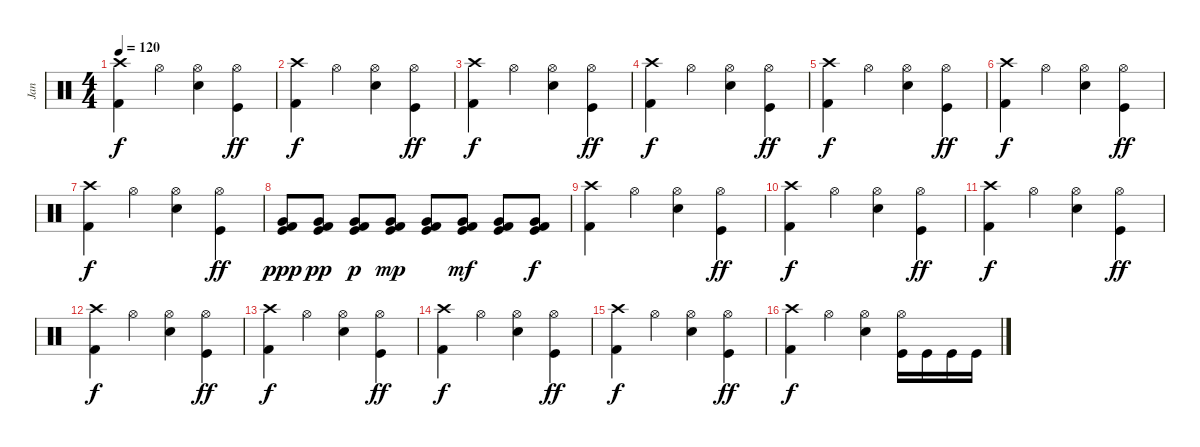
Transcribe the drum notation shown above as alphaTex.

\track ("Jan" "Jan") {instrument percussion}
\staff {score}
\articulation defaults
\ts (4 4)
\tempo 120
\clef neutral
\ks c
("Crash high (hit)" "Kick (hit) 2").4{dy f} "Hi-Hat (open)".4 ("Hi-Hat (open)" "Snare (hit) 2").4 ("Hi-Hat (open)" "Kick (hit)").4{dy ff} |
("Crash high (hit)" "Kick (hit) 2").4{dy f} "Hi-Hat (open)".4 ("Hi-Hat (open)" "Snare (hit) 2").4 ("Hi-Hat (open)" "Kick (hit)").4{dy ff} |
("Crash high (hit)" "Kick (hit) 2").4{dy f} "Hi-Hat (open)".4 ("Hi-Hat (open)" "Snare (hit) 2").4 ("Hi-Hat (open)" "Kick (hit)").4{dy ff} |
("Crash high (hit)" "Kick (hit) 2").4{dy f} "Hi-Hat (open)".4 ("Hi-Hat (open)" "Snare (hit) 2").4 ("Hi-Hat (open)" "Kick (hit)").4{dy ff} |
("Crash high (hit)" "Kick (hit) 2").4{dy f} "Hi-Hat (open)".4 ("Hi-Hat (open)" "Snare (hit) 2").4 ("Hi-Hat (open)" "Kick (hit)").4{dy ff} |
("Crash high (hit)" "Kick (hit) 2").4{dy f} "Hi-Hat (open)".4 ("Hi-Hat (open)" "Snare (hit) 2").4 ("Hi-Hat (open)" "Kick (hit)").4{dy ff} |
("Crash high (hit)" "Kick (hit) 2").4{dy f} "Hi-Hat (open)".4 ("Hi-Hat (open)" "Snare (hit) 2").4 ("Hi-Hat (open)" "Kick (hit)").4{dy ff} |
("Very Low Tom (hit)" "Kick (hit) 2" "Kick (hit)").8{dy ppp} ("Very Low Tom (hit)" "Kick (hit) 2" "Kick (hit)").8{dy pp} ("Very Low Tom (hit)" "Kick (hit) 2" "Kick (hit)").8{dy p} ("Very Low Tom (hit)" "Kick (hit) 2" "Kick (hit)").8{dy mp} ("Very Low Tom (hit)" "Kick (hit) 2" "Kick (hit)").8 ("Very Low Tom (hit)" "Kick (hit) 2" "Kick (hit)").8{dy mf} ("Very Low Tom (hit)" "Kick (hit) 2" "Kick (hit)").8 ("Very Low Tom (hit)" "Kick (hit) 2" "Kick (hit)").8{dy f} |
("Crash high (hit)" "Kick (hit) 2").4 "Hi-Hat (open)".4 ("Hi-Hat (open)" "Snare (hit) 2").4 ("Hi-Hat (open)" "Kick (hit)").4{dy ff} |
("Crash high (hit)" "Kick (hit) 2").4{dy f} "Hi-Hat (open)".4 ("Hi-Hat (open)" "Snare (hit) 2").4 ("Hi-Hat (open)" "Kick (hit)").4{dy ff} |
("Crash high (hit)" "Kick (hit) 2").4{dy f} "Hi-Hat (open)".4 ("Hi-Hat (open)" "Snare (hit) 2").4 ("Hi-Hat (open)" "Kick (hit)").4{dy ff} |
("Crash high (hit)" "Kick (hit) 2").4{dy f} "Hi-Hat (open)".4 ("Hi-Hat (open)" "Snare (hit) 2").4 ("Hi-Hat (open)" "Kick (hit)").4{dy ff} |
("Crash high (hit)" "Kick (hit) 2").4{dy f} "Hi-Hat (open)".4 ("Hi-Hat (open)" "Snare (hit) 2").4 ("Hi-Hat (open)" "Kick (hit)").4{dy ff} |
("Crash high (hit)" "Kick (hit) 2").4{dy f} "Hi-Hat (open)".4 ("Hi-Hat (open)" "Snare (hit) 2").4 ("Hi-Hat (open)" "Kick (hit)").4{dy ff} |
("Crash high (hit)" "Kick (hit) 2").4{dy f} "Hi-Hat (open)".4 ("Hi-Hat (open)" "Snare (hit) 2").4 ("Hi-Hat (open)" "Kick (hit)").4{dy ff} |
("Crash high (hit)" "Kick (hit) 2").4{dy f} "Hi-Hat (open)".4 ("Hi-Hat (open)" "Snare (hit) 2").4 ("Hi-Hat (open)" "Kick (hit)").16 "Kick (hit)".16 "Kick (hit)".16 "Kick (hit)".16
